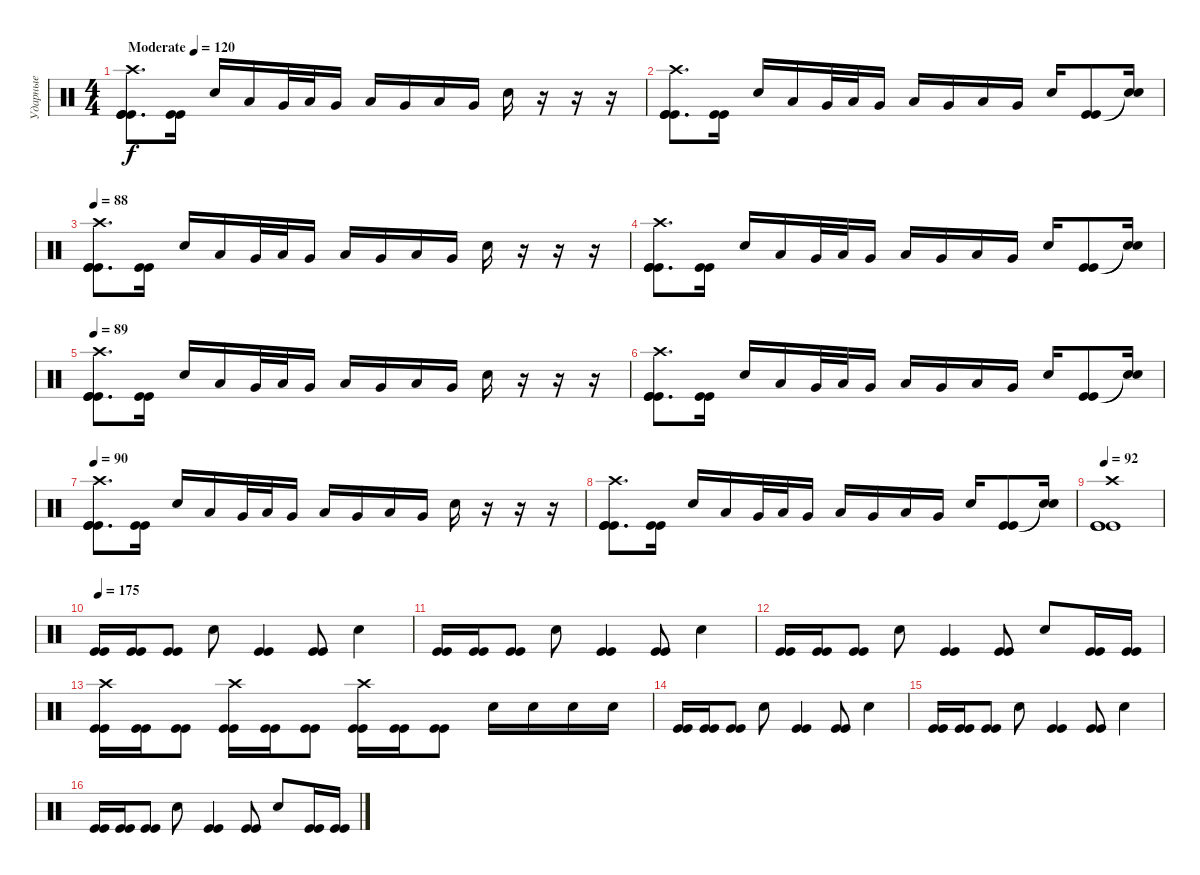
\track ("Ударные" "Ударные") {instrument percussion}
\staff {score}
\articulation defaults
\ts (4 4)
\tempo (120 "Moderate")
\tempo 87
\tempo (120 "Moderate")
\clef neutral
\ks c
("Crash high (hit)" "Kick (hit)" "Kick (hit)" "Kick (hit)").8{d dy f} ("Kick (hit)" "Kick (hit)").16 "Snare (hit) 2".16 "Low Floor Tom (hit)".16 "Very Low Tom (hit)".32 "Low Tom (hit)".32 "Very Low Tom (hit)".16 "Low Floor Tom (hit)".16 "Very Low Tom (hit)".16 "Low Tom (hit)".16 "Very Low Tom (hit)".16 "Snare (hit) 2".16 r.16 r.16 r.16 |
("Crash high (hit)" "Kick (hit)" "Kick (hit)" "Kick (hit)").8{d} ("Kick (hit)" "Kick (hit)").16 "Snare (hit) 2".16 "Low Floor Tom (hit)".16 "Very Low Tom (hit)".32 "Low Tom (hit)".32 "Very Low Tom (hit)".16 "Low Floor Tom (hit)".16 "Very Low Tom (hit)".16 "Low Tom (hit)".16 "Very Low Tom (hit)".16 "Snare (hit) 2".16 ("Kick (hit)" "Kick (hit)").8 ("Snare (hit)"{t} "Snare (hit)"{t}).16 |
\tempo 88
("Crash high (hit)" "Kick (hit)" "Kick (hit)" "Kick (hit)").8{d} ("Kick (hit)" "Kick (hit)").16 "Snare (hit) 2".16 "Low Floor Tom (hit)".16 "Very Low Tom (hit)".32 "Low Tom (hit)".32 "Very Low Tom (hit)".16 "Low Floor Tom (hit)".16 "Very Low Tom (hit)".16 "Low Tom (hit)".16 "Very Low Tom (hit)".16 "Snare (hit) 2".16 r.16 r.16 r.16 |
("Crash high (hit)" "Kick (hit)" "Kick (hit)" "Kick (hit)").8{d} ("Kick (hit)" "Kick (hit)").16 "Snare (hit) 2".16 "Low Floor Tom (hit)".16 "Very Low Tom (hit)".32 "Low Tom (hit)".32 "Very Low Tom (hit)".16 "Low Floor Tom (hit)".16 "Very Low Tom (hit)".16 "Low Tom (hit)".16 "Very Low Tom (hit)".16 "Snare (hit) 2".16 ("Kick (hit)" "Kick (hit)").8 ("Snare (hit)"{t} "Snare (hit)"{t}).16 |
\tempo 89
("Crash high (hit)" "Kick (hit)" "Kick (hit)" "Kick (hit)").8{d} ("Kick (hit)" "Kick (hit)").16 "Snare (hit) 2".16 "Low Floor Tom (hit)".16 "Very Low Tom (hit)".32 "Low Tom (hit)".32 "Very Low Tom (hit)".16 "Low Floor Tom (hit)".16 "Very Low Tom (hit)".16 "Low Tom (hit)".16 "Very Low Tom (hit)".16 "Snare (hit) 2".16 r.16 r.16 r.16 |
("Crash high (hit)" "Kick (hit)" "Kick (hit)" "Kick (hit)").8{d} ("Kick (hit)" "Kick (hit)").16 "Snare (hit) 2".16 "Low Floor Tom (hit)".16 "Very Low Tom (hit)".32 "Low Tom (hit)".32 "Very Low Tom (hit)".16 "Low Floor Tom (hit)".16 "Very Low Tom (hit)".16 "Low Tom (hit)".16 "Very Low Tom (hit)".16 "Snare (hit) 2".16 ("Kick (hit)" "Kick (hit)").8 ("Snare (hit)"{t} "Snare (hit)"{t}).16 |
\tempo 90
("Crash high (hit)" "Kick (hit)" "Kick (hit)" "Kick (hit)").8{d} ("Kick (hit)" "Kick (hit)").16 "Snare (hit) 2".16 "Low Floor Tom (hit)".16 "Very Low Tom (hit)".32 "Low Tom (hit)".32 "Very Low Tom (hit)".16 "Low Floor Tom (hit)".16 "Very Low Tom (hit)".16 "Low Tom (hit)".16 "Very Low Tom (hit)".16 "Snare (hit) 2".16 r.16 r.16 r.16 |
("Crash high (hit)" "Kick (hit)" "Kick (hit)" "Kick (hit)").8{d} ("Kick (hit)" "Kick (hit)").16 "Snare (hit) 2".16 "Low Floor Tom (hit)".16 "Very Low Tom (hit)".32 "Low Tom (hit)".32 "Very Low Tom (hit)".16 "Low Floor Tom (hit)".16 "Very Low Tom (hit)".16 "Low Tom (hit)".16 "Very Low Tom (hit)".16 "Snare (hit) 2".16 ("Kick (hit)" "Kick (hit)").8 ("Snare (hit)"{t} "Snare (hit)"{t}).16 |
\tempo 92
("Crash high (hit)" "Kick (hit)" "Kick (hit)" "Kick (hit)").1 |
\tempo 175
("Kick (hit)" "Kick (hit)").16 ("Kick (hit)" "Kick (hit)").16 ("Kick (hit)" "Kick (hit)").8 "Snare (hit) 2".8 ("Kick (hit)" "Kick (hit)").4 ("Kick (hit)" "Kick (hit)").8 "Snare (hit) 2".4 |
("Kick (hit)" "Kick (hit)").16 ("Kick (hit)" "Kick (hit)").16 ("Kick (hit)" "Kick (hit)").8 "Snare (hit) 2".8 ("Kick (hit)" "Kick (hit)").4 ("Kick (hit)" "Kick (hit)").8 "Snare (hit) 2".4 |
("Kick (hit)" "Kick (hit)").16 ("Kick (hit)" "Kick (hit)").16 ("Kick (hit)" "Kick (hit)").8 "Snare (hit) 2".8 ("Kick (hit)" "Kick (hit)").4 ("Kick (hit)" "Kick (hit)").8 "Snare (hit) 2".8 ("Kick (hit)" "Kick (hit)").16 ("Kick (hit)" "Kick (hit)").16 |
("Crash high (hit)" "Kick (hit)" "Kick (hit)").16 ("Kick (hit)" "Kick (hit)").16 ("Kick (hit)" "Kick (hit)").8 ("Crash high (hit)" "Kick (hit)" "Kick (hit)").16 ("Kick (hit)" "Kick (hit)").16 ("Kick (hit)" "Kick (hit)").8 ("Crash high (hit)" "Kick (hit)" "Kick (hit)").16 ("Kick (hit)" "Kick (hit)").16 ("Kick (hit)" "Kick (hit)").8 "Snare (hit) 2".16 "Snare (hit) 2".16 "Snare (hit) 2".16 "Snare (hit) 2".16 |
("Kick (hit)" "Kick (hit)").16 ("Kick (hit)" "Kick (hit)").16 ("Kick (hit)" "Kick (hit)").8 "Snare (hit) 2".8 ("Kick (hit)" "Kick (hit)").4 ("Kick (hit)" "Kick (hit)").8 "Snare (hit) 2".4 |
("Kick (hit)" "Kick (hit)").16 ("Kick (hit)" "Kick (hit)").16 ("Kick (hit)" "Kick (hit)").8 "Snare (hit) 2".8 ("Kick (hit)" "Kick (hit)").4 ("Kick (hit)" "Kick (hit)").8 "Snare (hit) 2".4 |
("Kick (hit)" "Kick (hit)").16 ("Kick (hit)" "Kick (hit)").16 ("Kick (hit)" "Kick (hit)").8 "Snare (hit) 2".8 ("Kick (hit)" "Kick (hit)").4 ("Kick (hit)" "Kick (hit)").8 "Snare (hit) 2".8 ("Kick (hit)" "Kick (hit)").16 ("Kick (hit)" "Kick (hit)").16
